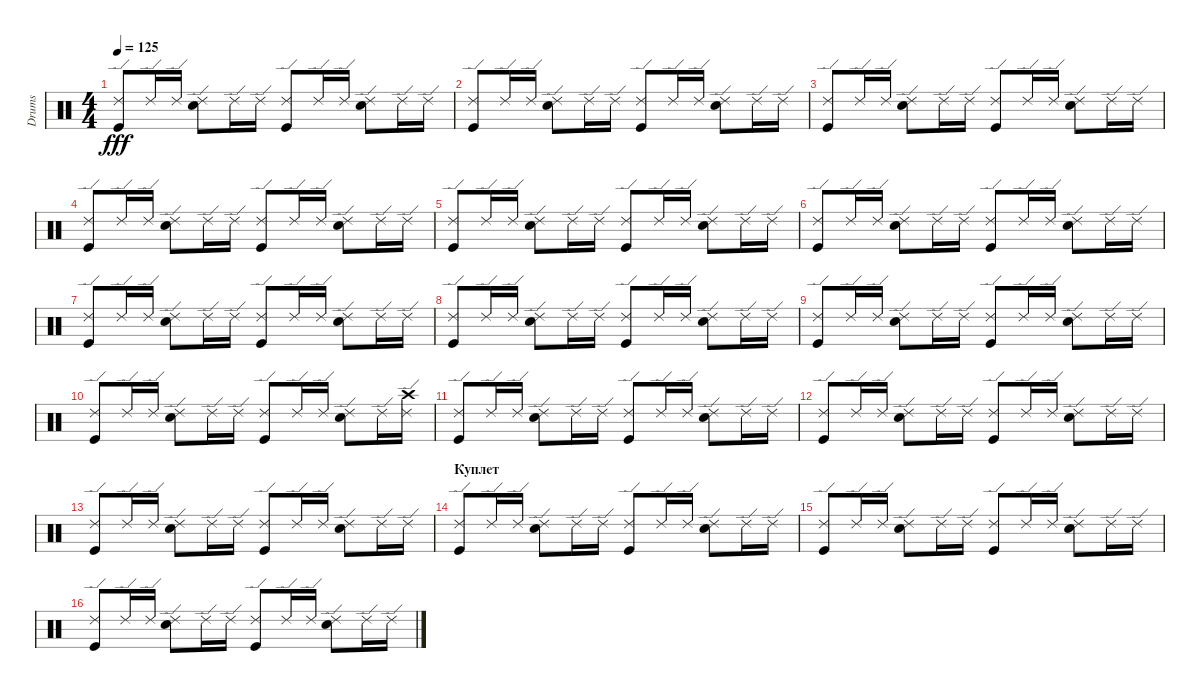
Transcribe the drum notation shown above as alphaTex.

\track ("Drums" "Drums") {instrument percussion}
\staff {score}
\articulation defaults
\ts (4 4)
\tempo 125
\clef neutral
\ks c
("Ride (edge) 2" "Kick (hit)").8{dy fff} "Ride (edge) 2".16 "Ride (edge) 2".16 ("Ride (edge) 2" "Snare (hit) 2").8 "Ride (edge) 2".16 "Ride (edge) 2".16 ("Ride (edge) 2" "Kick (hit)").8 "Ride (edge) 2".16 "Ride (edge) 2".16 ("Ride (edge) 2" "Snare (hit) 2").8 "Ride (edge) 2".16 "Ride (edge) 2".16 |
("Ride (edge) 2" "Kick (hit)").8 "Ride (edge) 2".16 "Ride (edge) 2".16 ("Ride (edge) 2" "Snare (hit) 2").8 "Ride (edge) 2".16 "Ride (edge) 2".16 ("Ride (edge) 2" "Kick (hit)").8 "Ride (edge) 2".16 "Ride (edge) 2".16 ("Ride (edge) 2" "Snare (hit) 2").8 "Ride (edge) 2".16 "Ride (edge) 2".16 |
("Ride (edge) 2" "Kick (hit)").8 "Ride (edge) 2".16 "Ride (edge) 2".16 ("Ride (edge) 2" "Snare (hit) 2").8 "Ride (edge) 2".16 "Ride (edge) 2".16 ("Ride (edge) 2" "Kick (hit)").8 "Ride (edge) 2".16 "Ride (edge) 2".16 ("Ride (edge) 2" "Snare (hit) 2").8 "Ride (edge) 2".16 "Ride (edge) 2".16 |
("Ride (edge) 2" "Kick (hit)").8 "Ride (edge) 2".16 "Ride (edge) 2".16 ("Ride (edge) 2" "Snare (hit) 2").8 "Ride (edge) 2".16 "Ride (edge) 2".16 ("Ride (edge) 2" "Kick (hit)").8 "Ride (edge) 2".16 "Ride (edge) 2".16 ("Ride (edge) 2" "Snare (hit) 2").8 "Ride (edge) 2".16 "Ride (edge) 2".16 |
("Ride (edge) 2" "Kick (hit)").8 "Ride (edge) 2".16 "Ride (edge) 2".16 ("Ride (edge) 2" "Snare (hit) 2").8 "Ride (edge) 2".16 "Ride (edge) 2".16 ("Ride (edge) 2" "Kick (hit)").8 "Ride (edge) 2".16 "Ride (edge) 2".16 ("Ride (edge) 2" "Snare (hit) 2").8 "Ride (edge) 2".16 "Ride (edge) 2".16 |
("Ride (edge) 2" "Kick (hit)").8 "Ride (edge) 2".16 "Ride (edge) 2".16 ("Ride (edge) 2" "Snare (hit) 2").8 "Ride (edge) 2".16 "Ride (edge) 2".16 ("Ride (edge) 2" "Kick (hit)").8 "Ride (edge) 2".16 "Ride (edge) 2".16 ("Ride (edge) 2" "Snare (hit) 2").8 "Ride (edge) 2".16 "Ride (edge) 2".16 |
("Ride (edge) 2" "Kick (hit)").8 "Ride (edge) 2".16 "Ride (edge) 2".16 ("Ride (edge) 2" "Snare (hit) 2").8 "Ride (edge) 2".16 "Ride (edge) 2".16 ("Ride (edge) 2" "Kick (hit)").8 "Ride (edge) 2".16 "Ride (edge) 2".16 ("Ride (edge) 2" "Snare (hit) 2").8 "Ride (edge) 2".16 "Ride (edge) 2".16 |
("Ride (edge) 2" "Kick (hit)").8 "Ride (edge) 2".16 "Ride (edge) 2".16 ("Ride (edge) 2" "Snare (hit) 2").8 "Ride (edge) 2".16 "Ride (edge) 2".16 ("Ride (edge) 2" "Kick (hit)").8 "Ride (edge) 2".16 "Ride (edge) 2".16 ("Ride (edge) 2" "Snare (hit) 2").8 "Ride (edge) 2".16 "Ride (edge) 2".16 |
("Ride (edge) 2" "Kick (hit)").8 "Ride (edge) 2".16 "Ride (edge) 2".16 ("Ride (edge) 2" "Snare (hit) 2").8 "Ride (edge) 2".16 "Ride (edge) 2".16 ("Ride (edge) 2" "Kick (hit)").8 "Ride (edge) 2".16 "Ride (edge) 2".16 ("Ride (edge) 2" "Snare (hit) 2").8 "Ride (edge) 2".16 "Ride (edge) 2".16 |
("Ride (edge) 2" "Kick (hit)").8 "Ride (edge) 2".16 "Ride (edge) 2".16 ("Ride (edge) 2" "Snare (hit) 2").8 "Ride (edge) 2".16 "Ride (edge) 2".16 ("Ride (edge) 2" "Kick (hit)").8 "Ride (edge) 2".16 "Ride (edge) 2".16 ("Ride (edge) 2" "Snare (hit) 2").8 "Ride (edge) 2".16 ("Ride (edge) 2" "Crash high (hit)").16 |
("Ride (edge) 2" "Kick (hit)").8 "Ride (edge) 2".16 "Ride (edge) 2".16 ("Ride (edge) 2" "Snare (hit) 2").8 "Ride (edge) 2".16 "Ride (edge) 2".16 ("Ride (edge) 2" "Kick (hit)").8 "Ride (edge) 2".16 "Ride (edge) 2".16 ("Ride (edge) 2" "Snare (hit) 2").8 "Ride (edge) 2".16 "Ride (edge) 2".16 |
("Ride (edge) 2" "Kick (hit)").8 "Ride (edge) 2".16 "Ride (edge) 2".16 ("Ride (edge) 2" "Snare (hit) 2").8 "Ride (edge) 2".16 "Ride (edge) 2".16 ("Ride (edge) 2" "Kick (hit)").8 "Ride (edge) 2".16 "Ride (edge) 2".16 ("Ride (edge) 2" "Snare (hit) 2").8 "Ride (edge) 2".16 "Ride (edge) 2".16 |
("Ride (edge) 2" "Kick (hit)").8 "Ride (edge) 2".16 "Ride (edge) 2".16 ("Ride (edge) 2" "Snare (hit) 2").8 "Ride (edge) 2".16 "Ride (edge) 2".16 ("Ride (edge) 2" "Kick (hit)").8 "Ride (edge) 2".16 "Ride (edge) 2".16 ("Ride (edge) 2" "Snare (hit) 2").8 "Ride (edge) 2".16 "Ride (edge) 2".16 |
\section ("" "Куплет")
("Ride (edge) 2" "Kick (hit)").8 "Ride (edge) 2".16 "Ride (edge) 2".16 ("Ride (edge) 2" "Snare (hit) 2").8 "Ride (edge) 2".16 "Ride (edge) 2".16 ("Ride (edge) 2" "Kick (hit)").8 "Ride (edge) 2".16 "Ride (edge) 2".16 ("Ride (edge) 2" "Snare (hit) 2").8 "Ride (edge) 2".16 "Ride (edge) 2".16 |
("Ride (edge) 2" "Kick (hit)").8 "Ride (edge) 2".16 "Ride (edge) 2".16 ("Ride (edge) 2" "Snare (hit) 2").8 "Ride (edge) 2".16 "Ride (edge) 2".16 ("Ride (edge) 2" "Kick (hit)").8 "Ride (edge) 2".16 "Ride (edge) 2".16 ("Ride (edge) 2" "Snare (hit) 2").8 "Ride (edge) 2".16 "Ride (edge) 2".16 |
("Ride (edge) 2" "Kick (hit)").8 "Ride (edge) 2".16 "Ride (edge) 2".16 ("Ride (edge) 2" "Snare (hit) 2").8 "Ride (edge) 2".16 "Ride (edge) 2".16 ("Ride (edge) 2" "Kick (hit)").8 "Ride (edge) 2".16 "Ride (edge) 2".16 ("Ride (edge) 2" "Snare (hit) 2").8 "Ride (edge) 2".16 "Ride (edge) 2".16
